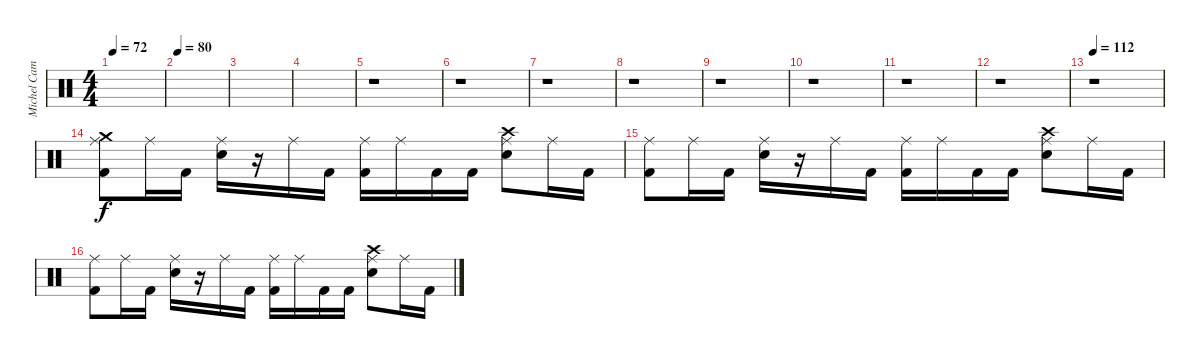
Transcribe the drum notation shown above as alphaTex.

\track ("Michel Camiade" "Michel Cam") {instrument percussion}
\staff {score}
\articulation defaults
\ts (4 4)
\tempo 72
\clef neutral
\ks c
|
\tempo 80
|
|
|
r.1 |
r.1 |
r.1 |
r.1 |
r.1 |
r.1 |
r.1 |
r.1 |
\tempo 112
r.1 |
("Crash medium (hit)" "Ride (middle)" "Kick (hit) 2").8 "Ride (middle)".16 "Kick (hit) 2".16 ("Ride (middle)" "Snare (hit) 2").16 r.16 "Ride (middle)".16 "Kick (hit) 2".16 ("Ride (middle)" "Kick (hit) 2").16 "Ride (middle)".16 "Kick (hit) 2".16 "Kick (hit) 2".16 ("Crash high (hit)" "Ride (middle)" "Snare (hit) 2").8 "Ride (middle)".16 "Kick (hit) 2".16 |
("Ride (middle)" "Kick (hit) 2").8 "Ride (middle)".16 "Kick (hit) 2".16 ("Ride (middle)" "Snare (hit) 2").16 r.16 "Ride (middle)".16 "Kick (hit) 2".16 ("Ride (middle)" "Kick (hit) 2").16 "Ride (middle)".16 "Kick (hit) 2".16 "Kick (hit) 2".16 ("Crash high (hit)" "Ride (middle)" "Snare (hit) 2").8 "Ride (middle)".16 "Kick (hit) 2".16 |
("Ride (middle)" "Kick (hit) 2").8 "Ride (middle)".16 "Kick (hit) 2".16 ("Ride (middle)" "Snare (hit) 2").16 r.16 "Ride (middle)".16 "Kick (hit) 2".16 ("Ride (middle)" "Kick (hit) 2").16 "Ride (middle)".16 "Kick (hit) 2".16 "Kick (hit) 2".16 ("Crash high (hit)" "Ride (middle)" "Snare (hit) 2").8 "Ride (middle)".16 "Kick (hit) 2".16
